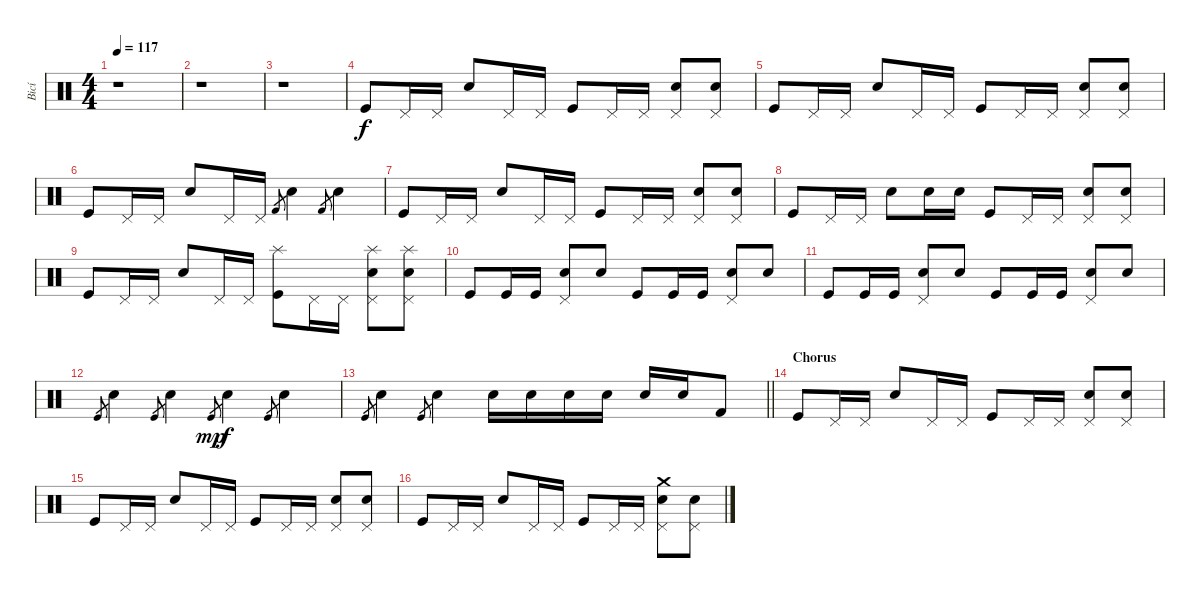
\track ("Bicí" "Bicí") {instrument percussion}
\staff {score}
\articulation defaults
\ts (4 4)
\tempo 117
\clef neutral
\ks c
r.1{dy mp} |
r.1 |
r.1 |
"Kick (hit)".8{dy f} "Pedal Hi-Hat (hit)".16 "Pedal Hi-Hat (hit)".16 "Electric Snare (hit)".8 "Pedal Hi-Hat (hit)".16 "Pedal Hi-Hat (hit)".16 "Kick (hit)".8 "Pedal Hi-Hat (hit)".16 "Pedal Hi-Hat (hit)".16 ("Pedal Hi-Hat (hit)" "Electric Snare (hit)").8 ("Pedal Hi-Hat (hit)" "Electric Snare (hit)").8 |
"Kick (hit)".8 "Pedal Hi-Hat (hit)".16 "Pedal Hi-Hat (hit)".16 "Electric Snare (hit)".8 "Pedal Hi-Hat (hit)".16 "Pedal Hi-Hat (hit)".16 "Kick (hit)".8 "Pedal Hi-Hat (hit)".16 "Pedal Hi-Hat (hit)".16 ("Pedal Hi-Hat (hit)" "Electric Snare (hit)").8 ("Pedal Hi-Hat (hit)" "Electric Snare (hit)").8 |
"Kick (hit)".8 "Pedal Hi-Hat (hit)".16 "Pedal Hi-Hat (hit)".16 "Electric Snare (hit)".8 "Pedal Hi-Hat (hit)".16 "Pedal Hi-Hat (hit)".16 "Kick (hit) 2".8{gr} "Electric Snare (hit)".4 "Kick (hit) 2".8{gr} "Electric Snare (hit)".4 |
"Kick (hit)".8 "Pedal Hi-Hat (hit)".16 "Pedal Hi-Hat (hit)".16 "Electric Snare (hit)".8 "Pedal Hi-Hat (hit)".16 "Pedal Hi-Hat (hit)".16 "Kick (hit)".8 "Pedal Hi-Hat (hit)".16 "Pedal Hi-Hat (hit)".16 ("Pedal Hi-Hat (hit)" "Electric Snare (hit)").8 ("Pedal Hi-Hat (hit)" "Electric Snare (hit)").8 |
"Kick (hit)".8 "Pedal Hi-Hat (hit)".16 "Pedal Hi-Hat (hit)".16 "Electric Snare (hit)".8 "Electric Snare (hit)".16 "Electric Snare (hit)".16 "Kick (hit)".8 "Pedal Hi-Hat (hit)".16 "Pedal Hi-Hat (hit)".16 ("Pedal Hi-Hat (hit)" "Electric Snare (hit)").8 ("Pedal Hi-Hat (hit)" "Electric Snare (hit)").8 |
"Kick (hit)".8 "Pedal Hi-Hat (hit)".16 "Pedal Hi-Hat (hit)".16 "Electric Snare (hit)".8 "Pedal Hi-Hat (hit)".16 "Pedal Hi-Hat (hit)".16 ("Splash (hit)" "Kick (hit)").8 "Pedal Hi-Hat (hit)".16 "Pedal Hi-Hat (hit)".16 ("Splash (hit)" "Pedal Hi-Hat (hit)" "Electric Snare (hit)").8 ("Splash (hit)" "Pedal Hi-Hat (hit)" "Electric Snare (hit)").8 |
"Kick (hit)".8 "Kick (hit)".16 "Kick (hit)".16 ("Pedal Hi-Hat (hit)" "Electric Snare (hit)").8 "Snare (hit)".8 "Kick (hit)".8 "Kick (hit)".16 "Kick (hit)".16 ("Pedal Hi-Hat (hit)" "Electric Snare (hit)").8 "Snare (hit)".8 |
"Kick (hit)".8 "Kick (hit)".16 "Kick (hit)".16 ("Pedal Hi-Hat (hit)" "Electric Snare (hit)").8 "Snare (hit)".8 "Kick (hit)".8 "Kick (hit)".16 "Kick (hit)".16 ("Pedal Hi-Hat (hit)" "Electric Snare (hit)").8 "Snare (hit)".8 |
"Kick (hit)".8{gr} "Electric Snare (hit)".4 "Kick (hit)".8{gr} "Electric Snare (hit)".4 "Kick (hit)".8{gr dy mp} "Electric Snare (hit)".4{dy f} "Kick (hit)".8{gr} "Electric Snare (hit)".4 |
\barLineRight lightlight "Kick (hit)".8{gr} "Electric Snare (hit)".4 "Kick (hit)".8{gr} "Electric Snare (hit)".4 "Electric Snare (hit)".16 "Electric Snare (hit)".16 "Electric Snare (hit)".16 "Electric Snare (hit)".16 "Electric Snare (hit)".16 "Electric Snare (hit)".16 "Kick (hit) 2".8
|
\section ("" "Chorus")
"Kick (hit)".8 "Pedal Hi-Hat (hit)".16 "Pedal Hi-Hat (hit)".16 "Electric Snare (hit)".8 "Pedal Hi-Hat (hit)".16 "Pedal Hi-Hat (hit)".16 "Kick (hit)".8 "Pedal Hi-Hat (hit)".16 "Pedal Hi-Hat (hit)".16 ("Pedal Hi-Hat (hit)" "Electric Snare (hit)").8 ("Pedal Hi-Hat (hit)" "Electric Snare (hit)").8 |
"Kick (hit)".8 "Pedal Hi-Hat (hit)".16 "Pedal Hi-Hat (hit)".16 "Electric Snare (hit)".8 "Pedal Hi-Hat (hit)".16 "Pedal Hi-Hat (hit)".16 "Kick (hit)".8 "Pedal Hi-Hat (hit)".16 "Pedal Hi-Hat (hit)".16 ("Pedal Hi-Hat (hit)" "Electric Snare (hit)").8 ("Pedal Hi-Hat (hit)" "Electric Snare (hit)").8 |
"Kick (hit)".8 "Pedal Hi-Hat (hit)".16 "Pedal Hi-Hat (hit)".16 "Electric Snare (hit)".8 "Pedal Hi-Hat (hit)".16 "Pedal Hi-Hat (hit)".16 "Kick (hit)".8 "Pedal Hi-Hat (hit)".16 "Pedal Hi-Hat (hit)".16 ("Crash medium (hit)" "Pedal Hi-Hat (hit)" "Electric Snare (hit)").8 ("Pedal Hi-Hat (hit)" "Electric Snare (hit)").8
